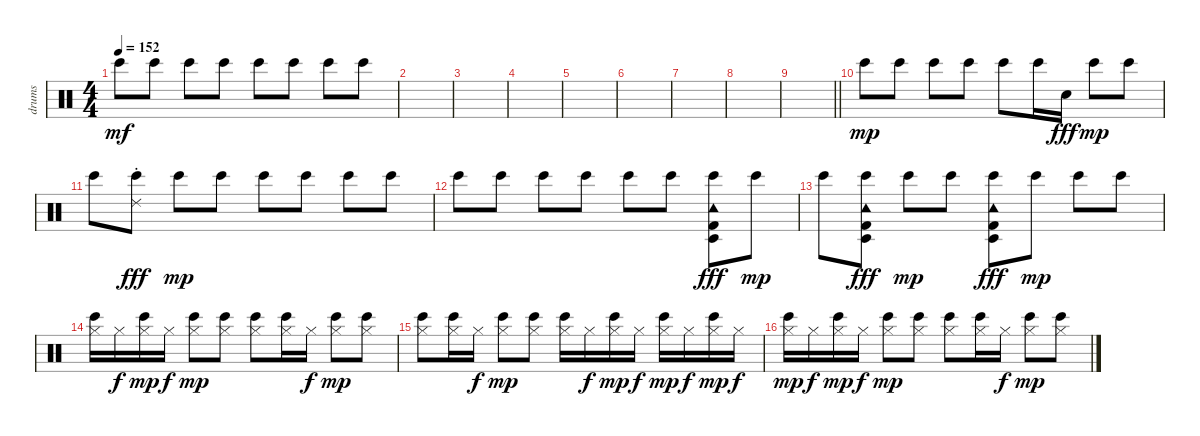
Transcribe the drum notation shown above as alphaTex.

\track ("drums" "drums") {instrument percussion}
\staff {score}
\articulation defaults
\ts (4 4)
\tempo 152
\clef neutral
\ks c "Bongo High (hit)".8{dy mf} "Bongo High (hit)".8 "Bongo High (hit)".8 "Bongo High (hit)".8 "Bongo High (hit)".8 "Bongo High (hit)".8 "Bongo High (hit)".8 "Bongo High (hit)".8
|
|
|
|
|
|
|
|
\barLineRight lightlight
|
"Bongo High (hit)".8{dy mp} "Bongo High (hit)".8 "Bongo High (hit)".8 "Bongo High (hit)".8 "Bongo High (hit)".8 "Bongo High (hit)".16 "Metronome (bell)".16{dy fff} "Bongo High (hit)".8{dy mp} "Bongo High (hit)".8 |
"Bongo High (hit)".8 ("Bongo High (hit)" "Ride (choke) 2").8{dy fff} "Bongo High (hit)".8{dy mp} "Bongo High (hit)".8 "Bongo High (hit)".8 "Bongo High (hit)".8 "Bongo High (hit)".8 "Bongo High (hit)".8 |
"Bongo High (hit)".8 "Bongo High (hit)".8 "Bongo High (hit)".8 "Bongo High (hit)".8 "Bongo High (hit)".8 "Bongo High (hit)".8 ("Bongo High (hit)" "Kick (hit) 2" "Timbale low (hit)" "Tambourine (hit)").8{dy fff} "Bongo High (hit)".8{dy mp} |
"Bongo High (hit)".8 ("Bongo High (hit)" "Kick (hit) 2" "Timbale low (hit)" "Tambourine (hit)").8{dy fff} "Bongo High (hit)".8{dy mp} "Bongo High (hit)".8 ("Bongo High (hit)" "Kick (hit) 2" "Timbale low (hit)" "Tambourine (hit)").8{dy fff} "Bongo High (hit)".8{dy mp} "Bongo High (hit)".8 "Bongo High (hit)".8 |
("Hi-Hat (closed)" "Bongo High (hit)").16 "Hi-Hat (closed)".16{dy f} ("Hi-Hat (closed)" "Bongo High (hit)").16{dy mp} "Hi-Hat (closed)".16{dy f} ("Hi-Hat (closed)" "Bongo High (hit)").8{dy mp} ("Hi-Hat (closed)" "Bongo High (hit)").8 ("Hi-Hat (closed)" "Bongo High (hit)").8 ("Hi-Hat (closed)" "Bongo High (hit)").16 "Hi-Hat (closed)".16{dy f} ("Hi-Hat (closed)" "Bongo High (hit)").8{dy mp} ("Hi-Hat (closed)" "Bongo High (hit)").8 |
("Hi-Hat (closed)" "Bongo High (hit)").8 ("Hi-Hat (closed)" "Bongo High (hit)").16 "Hi-Hat (closed)".16{dy f} ("Hi-Hat (closed)" "Bongo High (hit)").8{dy mp} ("Hi-Hat (closed)" "Bongo High (hit)").8 ("Hi-Hat (closed)" "Bongo High (hit)").16 "Hi-Hat (closed)".16{dy f} ("Hi-Hat (closed)" "Bongo High (hit)").16{dy mp} "Hi-Hat (closed)".16{dy f} ("Hi-Hat (closed)" "Bongo High (hit)").16{dy mp} "Hi-Hat (closed)".16{dy f} ("Hi-Hat (closed)" "Bongo High (hit)").16{dy mp} "Hi-Hat (closed)".16{dy f} |
("Hi-Hat (closed)" "Bongo High (hit)").16{dy mp} "Hi-Hat (closed)".16{dy f} ("Hi-Hat (closed)" "Bongo High (hit)").16{dy mp} "Hi-Hat (closed)".16{dy f} ("Hi-Hat (closed)" "Bongo High (hit)").8{dy mp} ("Hi-Hat (closed)" "Bongo High (hit)").8 ("Hi-Hat (closed)" "Bongo High (hit)").8 ("Hi-Hat (closed)" "Bongo High (hit)").16 "Hi-Hat (closed)".16{dy f} ("Hi-Hat (closed)" "Bongo High (hit)").8{dy mp} ("Hi-Hat (closed)" "Bongo High (hit)").8
